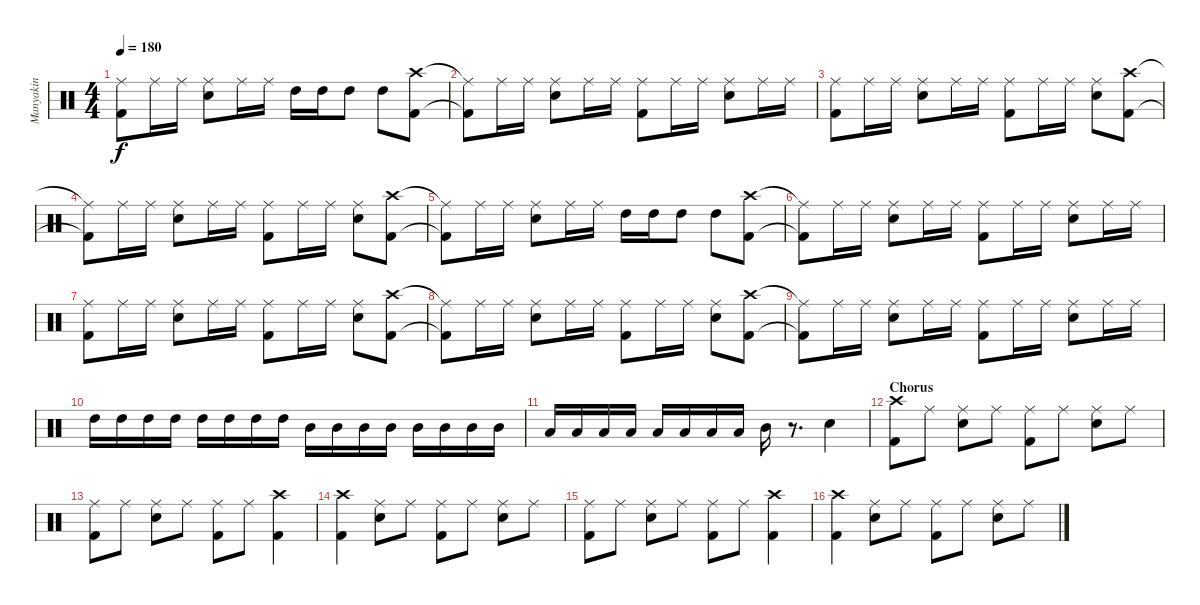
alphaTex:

\track ("Manyakin" "Manyakin") {instrument percussion}
\staff {score}
\articulation defaults
\ts (4 4)
\tempo 180
\clef neutral
\ks c
("Kick (hit) 2"{t} "Ride (middle)"{t}).8{dy f} "Ride (middle)".16 "Ride (middle)".16 ("Snare (hit) 2" "Ride (middle)").8 "Ride (middle)".16 "Ride (middle)".16 "High Tom (hit)".16 "High Tom (hit)".16 "High Tom (hit)".8 "High Tom (hit)".8 ("Crash high (hit)" "Kick (hit) 2").8 |
("Ride (middle)"{t} "Kick (hit) 2"{t}).8 "Ride (middle)".16 "Ride (middle)".16 ("Ride (middle)" "Snare (hit) 2").8 "Ride (middle)".16 "Ride (middle)".16 ("Ride (middle)" "Kick (hit) 2").8 "Ride (middle)".16 "Ride (middle)".16 ("Ride (middle)" "Snare (hit) 2").8 "Ride (middle)".16 "Ride (middle)".16 |
("Kick (hit) 2" "Ride (middle)").8 "Ride (middle)".16 "Ride (middle)".16 ("Snare (hit) 2" "Ride (middle)").8 "Ride (middle)".16 "Ride (middle)".16 ("Kick (hit) 2" "Ride (middle)").8 "Ride (middle)".16 "Ride (middle)".16 ("Snare (hit) 2" "Ride (middle)").8 ("Kick (hit) 2" "Crash high (hit)").8 |
("Kick (hit) 2"{t} "Ride (middle)"{t}).8 "Ride (middle)".16 "Ride (middle)".16 ("Snare (hit) 2" "Ride (middle)").8 "Ride (middle)".16 "Ride (middle)".16 ("Kick (hit) 2" "Ride (middle)").8 "Ride (middle)".16 "Ride (middle)".16 ("Snare (hit) 2" "Ride (middle)").8 ("Kick (hit) 2" "Crash high (hit)").8 |
("Kick (hit) 2"{t} "Ride (middle)"{t}).8 "Ride (middle)".16 "Ride (middle)".16 ("Snare (hit) 2" "Ride (middle)").8 "Ride (middle)".16 "Ride (middle)".16 "High Tom (hit)".16 "High Tom (hit)".16 "High Tom (hit)".8 "High Tom (hit)".8 ("Crash high (hit)" "Kick (hit) 2").8 |
("Ride (middle)"{t} "Kick (hit) 2"{t}).8 "Ride (middle)".16 "Ride (middle)".16 ("Ride (middle)" "Snare (hit) 2").8 "Ride (middle)".16 "Ride (middle)".16 ("Ride (middle)" "Kick (hit) 2").8 "Ride (middle)".16 "Ride (middle)".16 ("Ride (middle)" "Snare (hit) 2").8 "Ride (middle)".16 "Ride (middle)".16 |
("Kick (hit) 2" "Ride (middle)").8 "Ride (middle)".16 "Ride (middle)".16 ("Snare (hit) 2" "Ride (middle)").8 "Ride (middle)".16 "Ride (middle)".16 ("Kick (hit) 2" "Ride (middle)").8 "Ride (middle)".16 "Ride (middle)".16 ("Snare (hit) 2" "Ride (middle)").8 ("Kick (hit) 2" "Crash high (hit)").8 |
("Kick (hit) 2"{t} "Ride (middle)"{t}).8 "Ride (middle)".16 "Ride (middle)".16 ("Snare (hit) 2" "Ride (middle)").8 "Ride (middle)".16 "Ride (middle)".16 ("Kick (hit) 2" "Ride (middle)").8 "Ride (middle)".16 "Ride (middle)".16 ("Snare (hit) 2" "Ride (middle)").8 ("Kick (hit) 2" "Crash high (hit)").8 |
("Kick (hit) 2"{t} "Ride (middle)"{t}).8 "Ride (middle)".16 "Ride (middle)".16 ("Snare (hit) 2" "Ride (middle)").8 "Ride (middle)".16 "Ride (middle)".16 ("Kick (hit) 2" "Ride (middle)").8 "Ride (middle)".16 "Ride (middle)".16 ("Snare (hit) 2" "Ride (middle)").8 "Ride (middle)".16 "Ride (middle)".16 |
"High Tom (hit)".16 "High Tom (hit)".16 "High Tom (hit)".16 "High Tom (hit)".16 "High Tom (hit)".16 "High Tom (hit)".16 "High Tom (hit)".16 "High Tom (hit)".16 "Mid Tom (hit)".16 "Mid Tom (hit)".16 "Mid Tom (hit)".16 "Mid Tom (hit)".16 "Mid Tom (hit)".16 "Mid Tom (hit)".16 "Mid Tom (hit)".16 "Mid Tom (hit)".16 |
"Low Tom (hit)".16 "Low Tom (hit)".16 "Low Tom (hit)".16 "Low Tom (hit)".16 "Low Tom (hit)".16 "Low Tom (hit)".16 "Low Tom (hit)".16 "Low Tom (hit)".16 "Mid Tom (hit)".16 r.8{d} "Snare (hit) 2".4 |
\section ("" "Chorus")
("Kick (hit) 2" "Crash high (hit)").8 "Ride (middle)".8 ("Snare (hit) 2" "Ride (middle)").8 "Ride (middle)".8 ("Kick (hit) 2" "Ride (middle)").8 "Ride (middle)".8 ("Snare (hit) 2" "Ride (middle)").8 "Ride (middle)".8 |
("Kick (hit) 2" "Ride (middle)").8 "Ride (middle)".8 ("Snare (hit) 2" "Ride (middle)").8 "Ride (middle)".8 ("Kick (hit) 2" "Ride (middle)").8 "Ride (middle)".8 ("Kick (hit) 2" "Crash high (hit)").4 |
("Kick (hit) 2" "Crash high (hit)").4 ("Snare (hit) 2" "Ride (middle)").8 "Ride (middle)".8 ("Kick (hit) 2" "Ride (middle)").8 "Ride (middle)".8 ("Snare (hit) 2" "Ride (middle)").8 "Ride (middle)".8 |
("Kick (hit) 2" "Ride (middle)").8 "Ride (middle)".8 ("Snare (hit) 2" "Ride (middle)").8 "Ride (middle)".8 ("Kick (hit) 2" "Ride (middle)").8 "Ride (middle)".8 ("Kick (hit) 2" "Crash high (hit)").4 |
("Kick (hit) 2" "Crash high (hit)").4 ("Snare (hit) 2" "Ride (middle)").8 "Ride (middle)".8 ("Kick (hit) 2" "Ride (middle)").8 "Ride (middle)".8 ("Snare (hit) 2" "Ride (middle)").8 "Ride (middle)".8
